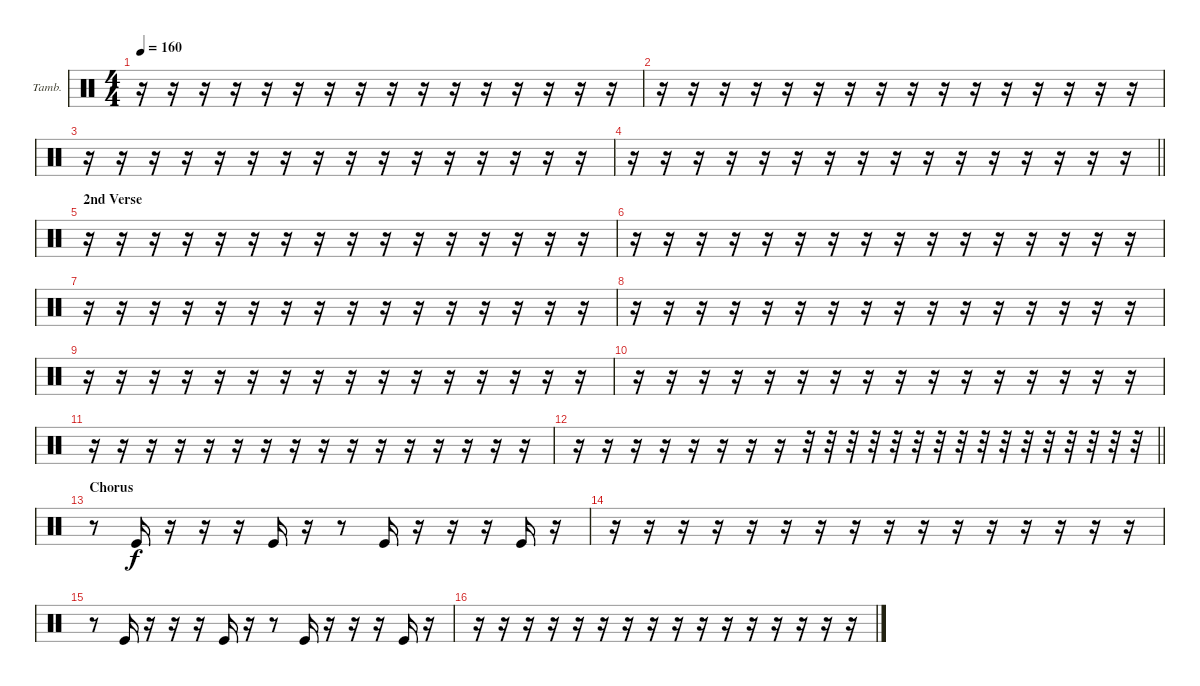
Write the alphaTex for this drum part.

\bracketExtendMode groupsimilarinstruments
\firstSystemTrackNameOrientation horizontal
\otherSystemsTrackNameOrientation horizontal
\track ("Tambourine" "Tamb.") {mute instrument percussion}
\staff {score}
\articulation defaults
\ts (4 4)
\tempo 160
\clef neutral
\ks c
r.16{dy f} r.16 r.16 r.16 r.16 r.16 r.16 r.16 r.16 r.16 r.16 r.16 r.16 r.16 r.16 r.16 |
r.16 r.16 r.16 r.16 r.16 r.16 r.16 r.16 r.16 r.16 r.16 r.16 r.16 r.16 r.16 r.16 |
r.16 r.16 r.16 r.16 r.16 r.16 r.16 r.16 r.16 r.16 r.16 r.16 r.16 r.16 r.16 r.16 |
\barLineRight lightlight
r.16 r.16 r.16 r.16 r.16 r.16 r.16 r.16 r.16 r.16 r.16 r.16 r.16 r.16 r.16 r.16 |
\section ("" "2nd Verse")
r.16 r.16 r.16 r.16 r.16 r.16 r.16 r.16 r.16 r.16 r.16 r.16 r.16 r.16 r.16 r.16 |
r.16 r.16 r.16 r.16 r.16 r.16 r.16 r.16 r.16 r.16 r.16 r.16 r.16 r.16 r.16 r.16 |
r.16 r.16 r.16 r.16 r.16 r.16 r.16 r.16 r.16 r.16 r.16 r.16 r.16 r.16 r.16 r.16 |
r.16 r.16 r.16 r.16 r.16 r.16 r.16 r.16 r.16 r.16 r.16 r.16 r.16 r.16 r.16 r.16 |
r.16 r.16 r.16 r.16 r.16 r.16 r.16 r.16 r.16 r.16 r.16 r.16 r.16 r.16 r.16 r.16 |
r.16 r.16 r.16 r.16 r.16 r.16 r.16 r.16 r.16 r.16 r.16 r.16 r.16 r.16 r.16 r.16 |
r.16 r.16 r.16 r.16 r.16 r.16 r.16 r.16 r.16 r.16 r.16 r.16 r.16 r.16 r.16 r.16 |
\barLineRight lightlight
r.16 r.16 r.16 r.16 r.16 r.16 r.16 r.16 r.32 r.32 r.32 r.32 r.32 r.32 r.32 r.32 r.32 r.32 r.32 r.32 r.32 r.32 r.32 r.32 |
\section ("" "Chorus")
r.8 "Kick (hit)".16 r.16 r.16 r.16 "Kick (hit)".16 r.16 r.8 "Kick (hit)".16 r.16 r.16 r.16 "Kick (hit)".16 r.16 |
r.16 r.16 r.16 r.16 r.16 r.16 r.16 r.16 r.16 r.16 r.16 r.16 r.16 r.16 r.16 r.16 |
r.8 "Kick (hit)".16 r.16 r.16 r.16 "Kick (hit)".16 r.16 r.8 "Kick (hit)".16 r.16 r.16 r.16 "Kick (hit)".16 r.16 |
r.16 r.16 r.16 r.16 r.16 r.16 r.16 r.16 r.16 r.16 r.16 r.16 r.16 r.16 r.16 r.16
